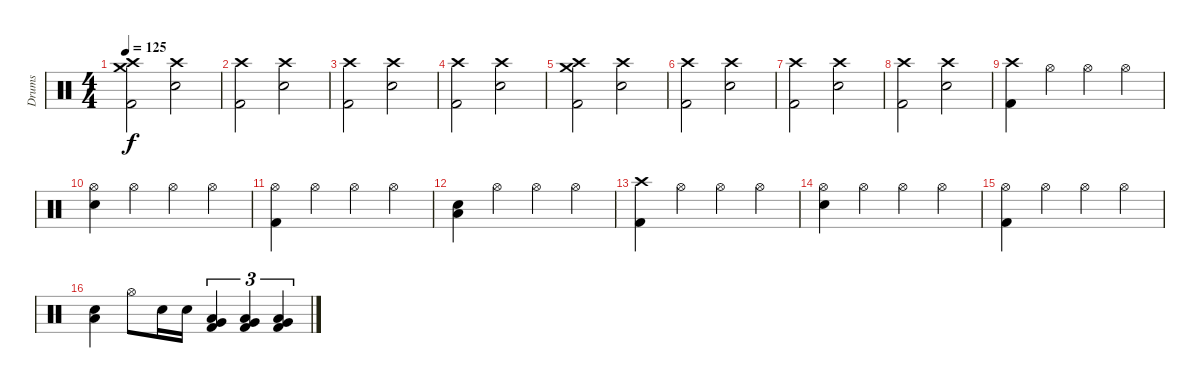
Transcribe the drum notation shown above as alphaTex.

\track ("Drums" "Drums") {instrument percussion}
\staff {score}
\articulation defaults
\ts (4 4)
\tempo 125
\clef neutral
\ks c
("Crash medium (hit)" "Crash high (hit)" "Kick (hit) 2").2{dy f} ("Crash high (hit)" "Snare (hit) 2").2 |
("Crash high (hit)" "Kick (hit) 2").2 ("Crash high (hit)" "Snare (hit) 2").2 |
("Crash high (hit)" "Kick (hit) 2").2 ("Crash high (hit)" "Snare (hit) 2").2 |
("Crash high (hit)" "Kick (hit) 2").2 ("Crash high (hit)" "Snare (hit) 2").2 |
("Crash medium (hit)" "Crash high (hit)" "Kick (hit) 2").2 ("Crash high (hit)" "Snare (hit) 2").2 |
("Crash high (hit)" "Kick (hit) 2").2 ("Crash high (hit)" "Snare (hit) 2").2 |
("Crash high (hit)" "Kick (hit) 2").2 ("Crash high (hit)" "Snare (hit) 2").2 |
("Crash high (hit)" "Kick (hit) 2").2 ("Crash high (hit)" "Snare (hit) 2").2 |
("Crash high (hit)" "Kick (hit) 2").4 "Hi-Hat (open)".4 "Hi-Hat (open)".4 "Hi-Hat (open)".4 |
("Hi-Hat (open)" "Snare (hit) 2").4 "Hi-Hat (open)".4 "Hi-Hat (open)".4 "Hi-Hat (open)".4 |
("Hi-Hat (open)" "Kick (hit) 2").4 "Hi-Hat (open)".4 "Hi-Hat (open)".4 "Hi-Hat (open)".4 |
("Low Floor Tom (hit)" "Snare (hit) 2").4 "Hi-Hat (open)".4 "Hi-Hat (open)".4 "Hi-Hat (open)".4 |
("Crash high (hit)" "Kick (hit) 2").4 "Hi-Hat (open)".4 "Hi-Hat (open)".4 "Hi-Hat (open)".4 |
("Hi-Hat (open)" "Snare (hit) 2").4 "Hi-Hat (open)".4 "Hi-Hat (open)".4 "Hi-Hat (open)".4 |
("Hi-Hat (open)" "Kick (hit) 2").4 "Hi-Hat (open)".4 "Hi-Hat (open)".4 "Hi-Hat (open)".4 |
("Low Floor Tom (hit)" "Snare (hit) 2").4 "Hi-Hat (open)".8 "Snare (hit) 2".16 "Snare (hit) 2".16 ("Low Floor Tom (hit)" "Very Low Tom (hit)" "Kick (hit) 2").4{tu (3 2)} ("Low Floor Tom (hit)" "Very Low Tom (hit)" "Kick (hit) 2").4{tu (3 2)} ("Low Floor Tom (hit)" "Very Low Tom (hit)" "Kick (hit) 2").4{tu (3 2)}
